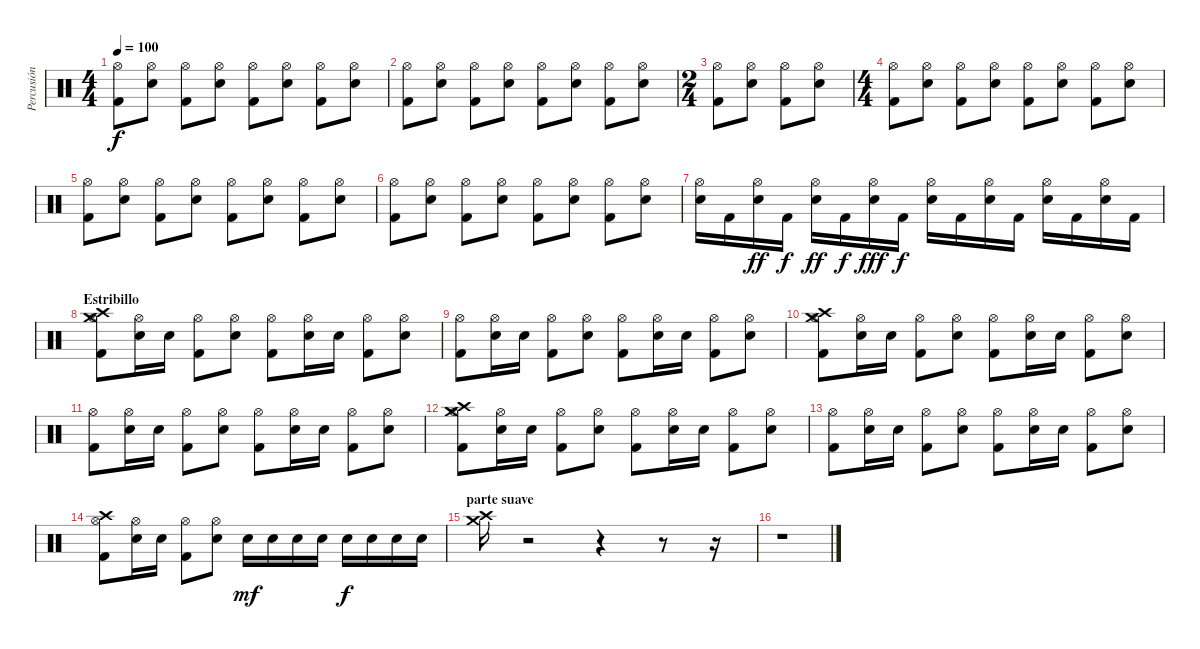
\track ("Percusión" "Percusión") {instrument percussion}
\staff {score}
\articulation defaults
\ts (4 4)
\tempo 100
\clef neutral
\ks c
("Hi-Hat (open)" "Kick (hit) 2").8{dy f} ("Hi-Hat (open)" "Electric Snare (hit)").8 ("Hi-Hat (open)" "Kick (hit) 2").8 ("Hi-Hat (open)" "Electric Snare (hit)").8 ("Hi-Hat (open)" "Kick (hit) 2").8 ("Hi-Hat (open)" "Electric Snare (hit)").8 ("Hi-Hat (open)" "Kick (hit) 2").8 ("Hi-Hat (open)" "Electric Snare (hit)").8 |
("Hi-Hat (open)" "Kick (hit) 2").8 ("Hi-Hat (open)" "Electric Snare (hit)").8 ("Hi-Hat (open)" "Kick (hit) 2").8 ("Hi-Hat (open)" "Electric Snare (hit)").8 ("Hi-Hat (open)" "Kick (hit) 2").8 ("Hi-Hat (open)" "Electric Snare (hit)").8 ("Hi-Hat (open)" "Kick (hit) 2").8 ("Hi-Hat (open)" "Electric Snare (hit)").8 |
\ts (2 4)
("Hi-Hat (open)" "Kick (hit) 2").8 ("Hi-Hat (open)" "Electric Snare (hit)").8 ("Hi-Hat (open)" "Kick (hit) 2").8 ("Hi-Hat (open)" "Electric Snare (hit)").8 |
\ts (4 4)
("Hi-Hat (open)" "Kick (hit) 2").8 ("Hi-Hat (open)" "Electric Snare (hit)").8 ("Hi-Hat (open)" "Kick (hit) 2").8 ("Hi-Hat (open)" "Electric Snare (hit)").8 ("Hi-Hat (open)" "Kick (hit) 2").8 ("Hi-Hat (open)" "Electric Snare (hit)").8 ("Hi-Hat (open)" "Kick (hit) 2").8 ("Hi-Hat (open)" "Electric Snare (hit)").8 |
("Hi-Hat (open)" "Kick (hit) 2").8 ("Hi-Hat (open)" "Electric Snare (hit)").8 ("Hi-Hat (open)" "Kick (hit) 2").8 ("Hi-Hat (open)" "Electric Snare (hit)").8 ("Hi-Hat (open)" "Kick (hit) 2").8 ("Hi-Hat (open)" "Electric Snare (hit)").8 ("Hi-Hat (open)" "Kick (hit) 2").8 ("Hi-Hat (open)" "Electric Snare (hit)").8 |
("Hi-Hat (open)" "Kick (hit) 2").8 ("Hi-Hat (open)" "Electric Snare (hit)").8 ("Hi-Hat (open)" "Kick (hit) 2").8 ("Hi-Hat (open)" "Electric Snare (hit)").8 ("Hi-Hat (open)" "Kick (hit) 2").8 ("Hi-Hat (open)" "Electric Snare (hit)").8 ("Hi-Hat (open)" "Kick (hit) 2").8 ("Hi-Hat (open)" "Electric Snare (hit)").8 |
("Hi-Hat (open)" "Electric Snare (hit)").16 "Kick (hit) 2".16 ("Hi-Hat (open)" "Electric Snare (hit)").16{dy ff} "Kick (hit) 2".16{dy f} ("Hi-Hat (open)" "Electric Snare (hit)").16{dy ff} "Kick (hit) 2".16{dy f} ("Hi-Hat (open)" "Electric Snare (hit)").16{dy fff} "Kick (hit) 2".16{dy f} ("Hi-Hat (open)" "Electric Snare (hit)").16 "Kick (hit) 2".16 ("Hi-Hat (open)" "Electric Snare (hit)").16 "Kick (hit) 2".16 ("Hi-Hat (open)" "Electric Snare (hit)").16 "Kick (hit) 2".16 ("Hi-Hat (open)" "Electric Snare (hit)").16 "Kick (hit) 2".16 |
\section ("" "Estribillo")
("Crash high (hit)" "Hi-Hat (open)" "Crash medium (hit)" "Kick (hit) 2").8 ("Hi-Hat (open)" "Electric Snare (hit)").16 "Electric Snare (hit)".16 ("Hi-Hat (open)" "Kick (hit) 2").8 ("Hi-Hat (open)" "Electric Snare (hit)").8 ("Hi-Hat (open)" "Kick (hit) 2").8 ("Hi-Hat (open)" "Electric Snare (hit)").16 "Electric Snare (hit)".16 ("Hi-Hat (open)" "Kick (hit) 2").8 ("Hi-Hat (open)" "Electric Snare (hit)").8 |
("Hi-Hat (open)" "Kick (hit) 2").8 ("Hi-Hat (open)" "Electric Snare (hit)").16 "Electric Snare (hit)".16 ("Hi-Hat (open)" "Kick (hit) 2").8 ("Hi-Hat (open)" "Electric Snare (hit)").8 ("Hi-Hat (open)" "Kick (hit) 2").8 ("Hi-Hat (open)" "Electric Snare (hit)").16 "Electric Snare (hit)".16 ("Hi-Hat (open)" "Kick (hit) 2").8 ("Hi-Hat (open)" "Electric Snare (hit)").8 |
("Crash high (hit)" "Hi-Hat (open)" "Crash medium (hit)" "Kick (hit) 2").8 ("Hi-Hat (open)" "Electric Snare (hit)").16 "Electric Snare (hit)".16 ("Hi-Hat (open)" "Kick (hit) 2").8 ("Hi-Hat (open)" "Electric Snare (hit)").8 ("Hi-Hat (open)" "Kick (hit) 2").8 ("Hi-Hat (open)" "Electric Snare (hit)").16 "Electric Snare (hit)".16 ("Hi-Hat (open)" "Kick (hit) 2").8 ("Hi-Hat (open)" "Electric Snare (hit)").8 |
("Hi-Hat (open)" "Kick (hit) 2").8 ("Hi-Hat (open)" "Electric Snare (hit)").16 "Electric Snare (hit)".16 ("Hi-Hat (open)" "Kick (hit) 2").8 ("Hi-Hat (open)" "Electric Snare (hit)").8 ("Hi-Hat (open)" "Kick (hit) 2").8 ("Hi-Hat (open)" "Electric Snare (hit)").16 "Electric Snare (hit)".16 ("Hi-Hat (open)" "Kick (hit) 2").8 ("Hi-Hat (open)" "Electric Snare (hit)").8 |
("Crash high (hit)" "Hi-Hat (open)" "Crash medium (hit)" "Kick (hit) 2").8 ("Hi-Hat (open)" "Electric Snare (hit)").16 "Electric Snare (hit)".16 ("Hi-Hat (open)" "Kick (hit) 2").8 ("Hi-Hat (open)" "Electric Snare (hit)").8 ("Hi-Hat (open)" "Kick (hit) 2").8 ("Hi-Hat (open)" "Electric Snare (hit)").16 "Electric Snare (hit)".16 ("Hi-Hat (open)" "Kick (hit) 2").8 ("Hi-Hat (open)" "Electric Snare (hit)").8 |
("Hi-Hat (open)" "Kick (hit) 2").8 ("Hi-Hat (open)" "Electric Snare (hit)").16 "Electric Snare (hit)".16 ("Hi-Hat (open)" "Kick (hit) 2").8 ("Hi-Hat (open)" "Electric Snare (hit)").8 ("Hi-Hat (open)" "Kick (hit) 2").8 ("Hi-Hat (open)" "Electric Snare (hit)").16 "Electric Snare (hit)".16 ("Hi-Hat (open)" "Kick (hit) 2").8 ("Hi-Hat (open)" "Electric Snare (hit)").8 |
("Crash high (hit)" "Hi-Hat (open)" "Kick (hit) 2").8 ("Hi-Hat (open)" "Electric Snare (hit)").16 "Electric Snare (hit)".16 ("Hi-Hat (open)" "Kick (hit) 2").8 ("Hi-Hat (open)" "Electric Snare (hit)").8 "Electric Snare (hit)".16{dy mf} "Electric Snare (hit)".16 "Electric Snare (hit)".16 "Electric Snare (hit)".16 "Electric Snare (hit)".16{dy f} "Electric Snare (hit)".16 "Electric Snare (hit)".16 "Electric Snare (hit)".16 |
\section ("" "parte suave")
("Crash medium (hit)" "Crash high (hit)").16 r.2 r.4 r.8 r.16 |
r.1
